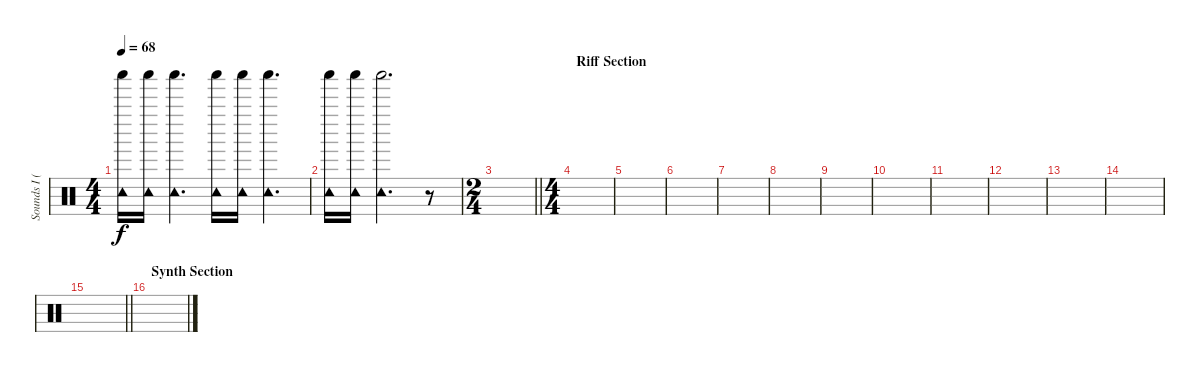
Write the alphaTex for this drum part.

\track ("Sounds I (Generic)" "Sounds I (") {instrument percussion}
\staff {score}
\articulation defaults
\ts (4 4)
\tempo 68
\clef neutral
\ks c
("Tambourine (hit)" "Shaker (hit)").16{dy f} ("Tambourine (hit)" "Shaker (hit)").16 ("Tambourine (hit)" "Shaker (hit)").4{d} ("Tambourine (hit)" "Shaker (hit)").16 ("Tambourine (hit)" "Shaker (hit)").16 ("Tambourine (hit)" "Shaker (hit)").4{d} |
("Tambourine (hit)" "Shaker (hit)").16 ("Tambourine (hit)" "Shaker (hit)").16 ("Tambourine (hit)" "Shaker (hit)").2{d} r.8 |
\ts (2 4)
\barLineRight lightlight
|
\ts (4 4)
\section ("" "Riff Section")
|
|
|
|
|
|
|
|
|
|
|
\barLineRight lightlight
|
\section ("" "Synth Section")
